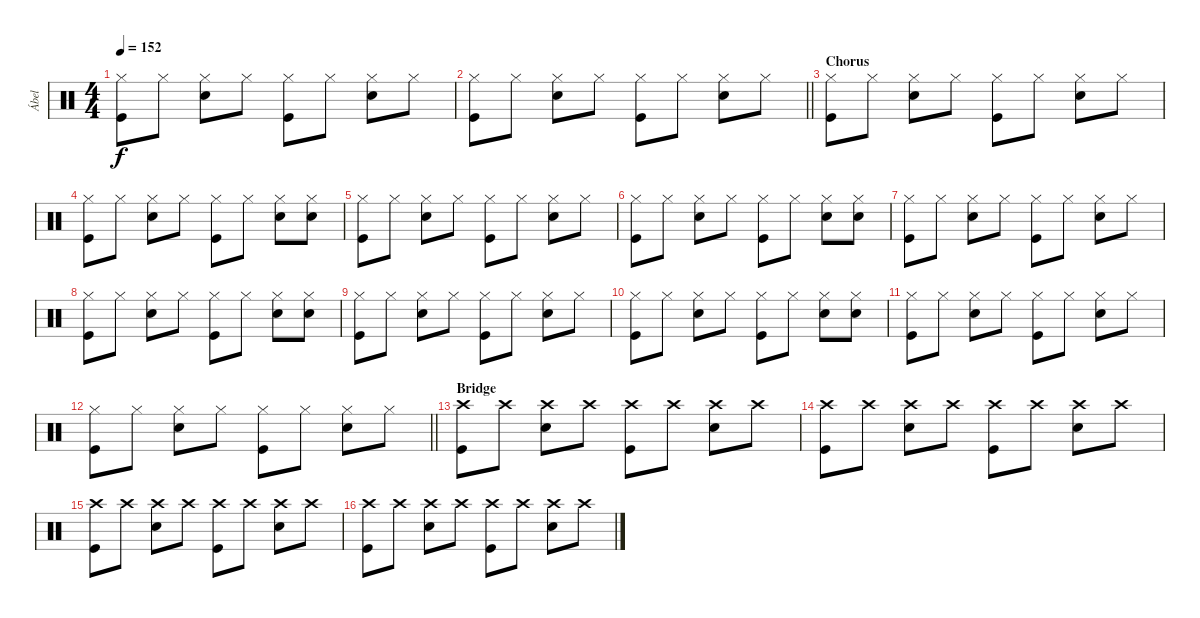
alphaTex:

\track ("Ábel" "Ábel") {instrument percussion}
\staff {score}
\articulation defaults
\ts (4 4)
\tempo 152
\clef neutral
\ks c
("Hi-Hat (closed)" "Kick (hit)").8{dy f} "Hi-Hat (closed)".8 ("Hi-Hat (closed)" "Snare (hit) 2").8 "Hi-Hat (closed)".8 ("Hi-Hat (closed)" "Kick (hit)").8 "Hi-Hat (closed)".8 ("Hi-Hat (closed)" "Snare (hit) 2").8 "Hi-Hat (closed)".8 |
\barLineRight lightlight
("Hi-Hat (closed)" "Kick (hit)").8 "Hi-Hat (closed)".8 ("Hi-Hat (closed)" "Snare (hit) 2").8 "Hi-Hat (closed)".8 ("Hi-Hat (closed)" "Kick (hit)").8 "Hi-Hat (closed)".8 ("Hi-Hat (closed)" "Snare (hit) 2").8 "Hi-Hat (closed)".8 |
\section ("" "Chorus")
("Hi-Hat (closed)" "Kick (hit)").8 "Hi-Hat (closed)".8 ("Hi-Hat (closed)" "Snare (hit) 2").8 "Hi-Hat (closed)".8 ("Hi-Hat (closed)" "Kick (hit)").8 "Hi-Hat (closed)".8 ("Hi-Hat (closed)" "Snare (hit) 2").8 "Hi-Hat (closed)".8 |
("Hi-Hat (closed)" "Kick (hit)").8 "Hi-Hat (closed)".8 ("Hi-Hat (closed)" "Snare (hit) 2").8 "Hi-Hat (closed)".8 ("Hi-Hat (closed)" "Kick (hit)").8 "Hi-Hat (closed)".8 ("Hi-Hat (closed)" "Snare (hit) 2").8 ("Hi-Hat (closed)" "Snare (hit) 2").8 |
("Hi-Hat (closed)" "Kick (hit)").8 "Hi-Hat (closed)".8 ("Hi-Hat (closed)" "Snare (hit) 2").8 "Hi-Hat (closed)".8 ("Hi-Hat (closed)" "Kick (hit)").8 "Hi-Hat (closed)".8 ("Hi-Hat (closed)" "Snare (hit) 2").8 "Hi-Hat (closed)".8 |
("Hi-Hat (closed)" "Kick (hit)").8 "Hi-Hat (closed)".8 ("Hi-Hat (closed)" "Snare (hit) 2").8 "Hi-Hat (closed)".8 ("Hi-Hat (closed)" "Kick (hit)").8 "Hi-Hat (closed)".8 ("Hi-Hat (closed)" "Snare (hit) 2").8 ("Hi-Hat (closed)" "Snare (hit) 2").8 |
("Hi-Hat (closed)" "Kick (hit)").8 "Hi-Hat (closed)".8 ("Hi-Hat (closed)" "Snare (hit) 2").8 "Hi-Hat (closed)".8 ("Hi-Hat (closed)" "Kick (hit)").8 "Hi-Hat (closed)".8 ("Hi-Hat (closed)" "Snare (hit) 2").8 "Hi-Hat (closed)".8 |
("Hi-Hat (closed)" "Kick (hit)").8 "Hi-Hat (closed)".8 ("Hi-Hat (closed)" "Snare (hit) 2").8 "Hi-Hat (closed)".8 ("Hi-Hat (closed)" "Kick (hit)").8 "Hi-Hat (closed)".8 ("Hi-Hat (closed)" "Snare (hit) 2").8 ("Hi-Hat (closed)" "Snare (hit) 2").8 |
("Hi-Hat (closed)" "Kick (hit)").8 "Hi-Hat (closed)".8 ("Hi-Hat (closed)" "Snare (hit) 2").8 "Hi-Hat (closed)".8 ("Hi-Hat (closed)" "Kick (hit)").8 "Hi-Hat (closed)".8 ("Hi-Hat (closed)" "Snare (hit) 2").8 "Hi-Hat (closed)".8 |
("Hi-Hat (closed)" "Kick (hit)").8 "Hi-Hat (closed)".8 ("Hi-Hat (closed)" "Snare (hit) 2").8 "Hi-Hat (closed)".8 ("Hi-Hat (closed)" "Kick (hit)").8 "Hi-Hat (closed)".8 ("Hi-Hat (closed)" "Snare (hit) 2").8 ("Hi-Hat (closed)" "Snare (hit) 2").8 |
("Hi-Hat (closed)" "Kick (hit)").8 "Hi-Hat (closed)".8 ("Hi-Hat (closed)" "Snare (hit) 2").8 "Hi-Hat (closed)".8 ("Hi-Hat (closed)" "Kick (hit)").8 "Hi-Hat (closed)".8 ("Hi-Hat (closed)" "Snare (hit) 2").8 "Hi-Hat (closed)".8 |
\barLineRight lightlight
("Hi-Hat (closed)" "Kick (hit)").8 "Hi-Hat (closed)".8 ("Hi-Hat (closed)" "Snare (hit) 2").8 "Hi-Hat (closed)".8 ("Hi-Hat (closed)" "Kick (hit)").8 "Hi-Hat (closed)".8 ("Hi-Hat (closed)" "Snare (hit) 2").8 "Hi-Hat (closed)".8 |
\section ("" "Bridge")
("Crash high (hit)" "Kick (hit)").8 "Crash high (hit)".8 ("Crash high (hit)" "Snare (hit) 2").8 "Crash high (hit)".8 ("Crash high (hit)" "Kick (hit)").8 "Crash high (hit)".8 ("Crash high (hit)" "Snare (hit) 2").8 "Crash high (hit)".8 |
("Crash high (hit)" "Kick (hit)").8 "Crash high (hit)".8 ("Crash high (hit)" "Snare (hit) 2").8 "Crash high (hit)".8 ("Crash high (hit)" "Kick (hit)").8 "Crash high (hit)".8 ("Crash high (hit)" "Snare (hit) 2").8 "Crash high (hit)".8 |
("Crash high (hit)" "Kick (hit)").8 "Crash high (hit)".8 ("Crash high (hit)" "Snare (hit) 2").8 "Crash high (hit)".8 ("Crash high (hit)" "Kick (hit)").8 "Crash high (hit)".8 ("Crash high (hit)" "Snare (hit) 2").8 "Crash high (hit)".8 |
("Crash high (hit)" "Kick (hit)").8 "Crash high (hit)".8 ("Crash high (hit)" "Snare (hit) 2").8 "Crash high (hit)".8 ("Crash high (hit)" "Kick (hit)").8 "Crash high (hit)".8 ("Crash high (hit)" "Snare (hit) 2").8 "Crash high (hit)".8
